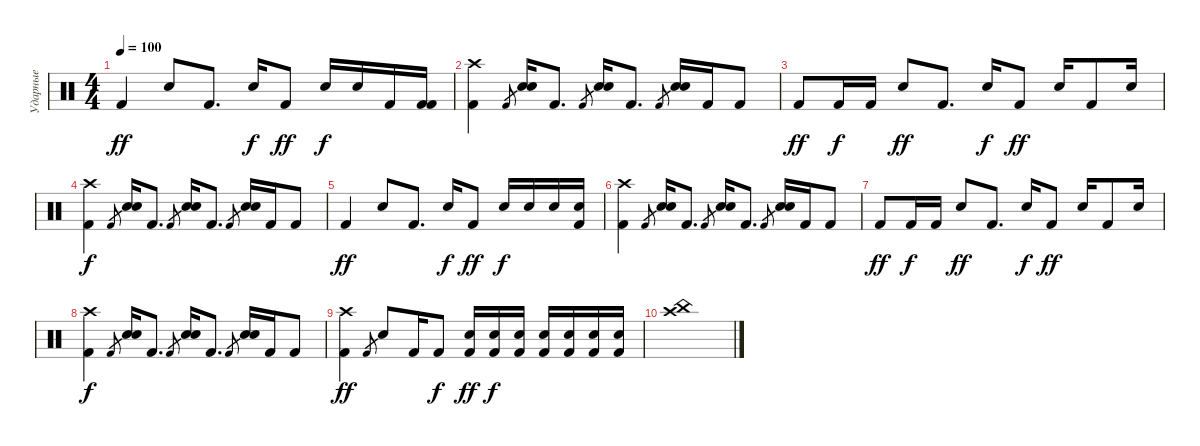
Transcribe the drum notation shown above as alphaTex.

\track ("Ударные" "Ударные") {instrument percussion}
\staff {score}
\articulation defaults
\ts (4 4)
\tempo 100
\clef neutral
\ks c "Kick (hit) 2".4{dy ff} "Snare (hit) 2".8 "Kick (hit) 2".8{d} "Snare (hit) 2".16{dy f} "Kick (hit) 2".8{dy ff} "Electric Snare (hit)".16{dy f} "Electric Snare (hit)".16 "Kick (hit) 2".16
("Kick (hit) 2" "Kick (hit) 2").16 |
("Crash high (hit)" "Kick (hit) 2").4 "Kick (hit) 2".8{gr} ("Snare (hit) 2" "Snare (hit) 2").16 "Kick (hit) 2".8{d} "Kick (hit) 2".8{gr} ("Snare (hit) 2" "Snare (hit) 2").16 "Kick (hit) 2".8{d} "Kick (hit) 2".8{gr} ("Snare (hit) 2" "Snare (hit) 2").16 "Kick (hit) 2".16 "Kick (hit) 2".8 |
"Kick (hit) 2".8{dy ff} "Kick (hit) 2".16{dy f} "Kick (hit) 2".16 "Snare (hit) 2".8{dy ff} "Kick (hit) 2".8{d} "Snare (hit) 2".16{dy f} "Kick (hit) 2".8{dy ff} "Snare (hit) 2".16 "Kick (hit) 2".8 "Snare (hit) 2".16 |
("Crash high (hit)" "Kick (hit) 2").4{dy f} "Kick (hit) 2".8{gr} ("Snare (hit) 2" "Snare (hit) 2").16 "Kick (hit) 2".8{d} "Kick (hit) 2".8{gr} ("Snare (hit) 2" "Snare (hit) 2").16 "Kick (hit) 2".8{d} "Kick (hit) 2".8{gr} ("Snare (hit) 2" "Snare (hit) 2").16 "Kick (hit) 2".16 "Kick (hit) 2".8 |
"Kick (hit) 2".4{dy ff} "Snare (hit) 2".8 "Kick (hit) 2".8{d} "Snare (hit) 2".16{dy f} "Kick (hit) 2".8{dy ff} "Electric Snare (hit)".16{dy f} "Electric Snare (hit)".16 "Snare (hit) 2".16 ("Snare (hit) 2" "Kick (hit) 2").16 |
("Crash high (hit)" "Kick (hit) 2").4 "Kick (hit) 2".8{gr} ("Snare (hit) 2" "Snare (hit) 2").16 "Kick (hit) 2".8{d} "Kick (hit) 2".8{gr} ("Snare (hit) 2" "Snare (hit) 2").16 "Kick (hit) 2".8{d} "Kick (hit) 2".8{gr} ("Snare (hit) 2" "Snare (hit) 2").16 "Kick (hit) 2".16 "Kick (hit) 2".8 |
"Kick (hit) 2".8{dy ff} "Kick (hit) 2".16{dy f} "Kick (hit) 2".16 "Snare (hit) 2".8{dy ff} "Kick (hit) 2".8{d} "Snare (hit) 2".16{dy f} "Kick (hit) 2".8{dy ff} "Snare (hit) 2".16 "Kick (hit) 2".8 "Snare (hit) 2".16 |
("Crash high (hit)" "Kick (hit) 2").4{dy f} "Kick (hit) 2".8{gr} ("Snare (hit) 2" "Snare (hit) 2").16 "Kick (hit) 2".8{d} "Kick (hit) 2".8{gr} ("Snare (hit) 2" "Snare (hit) 2").16 "Kick (hit) 2".8{d} "Kick (hit) 2".8{gr} ("Snare (hit) 2" "Snare (hit) 2").16 "Kick (hit) 2".16 "Kick (hit) 2".8 |
("Crash high (hit)" "Kick (hit) 2").4{dy ff} "Kick (hit) 2".8{gr} "Snare (hit) 2".8 "Kick (hit) 2".16 "Kick (hit) 2".8{dy f} ("Electric Snare (hit)" "Kick (hit) 2").16{dy ff} ("Electric Snare (hit)" "Kick (hit) 2").16{dy f} ("Electric Snare (hit)" "Kick (hit) 2").16 ("Snare (hit) 2" "Kick (hit) 2").16 ("Snare (hit) 2" "Kick (hit) 2").16 ("Snare (hit) 2" "Kick (hit) 2").16 ("Snare (hit) 2" "Kick (hit) 2").16 |
("Crash high (hit)" "China (hit)").1
